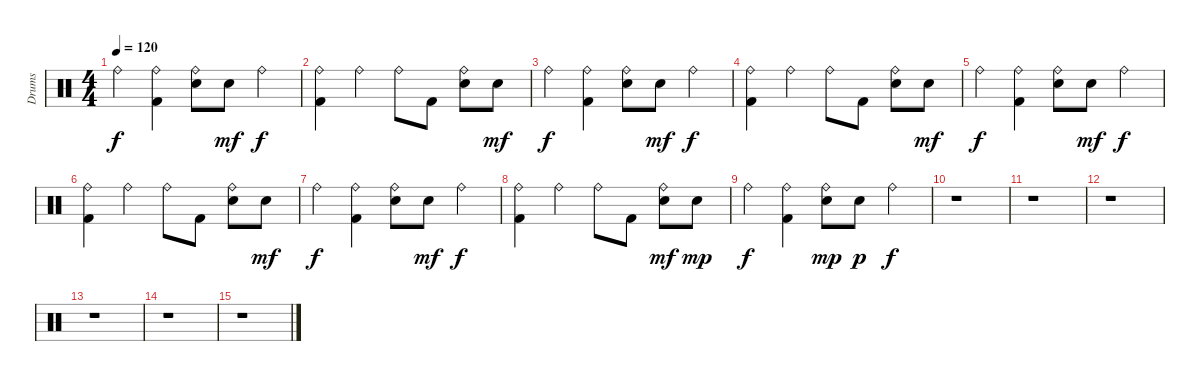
\track ("Drums" "Drums") {instrument percussion}
\staff {score}
\articulation defaults
\ts (4 4)
\tempo 120
\clef neutral
\ks c "Ride (bell)".4{dy f}
("Ride (bell)" "Kick (hit) 2").4 ("Ride (bell)" "Electric Snare (hit)").8 "Electric Snare (hit)".8{dy mf} "Ride (bell)".4{dy f} |
("Ride (bell)" "Kick (hit) 2").4 "Ride (bell)".4 "Ride (bell)".8 "Kick (hit) 2".8 ("Ride (bell)" "Electric Snare (hit)").8 "Electric Snare (hit)".8{dy mf} |
"Ride (bell)".4{dy f} ("Ride (bell)" "Kick (hit) 2").4 ("Ride (bell)" "Electric Snare (hit)").8 "Electric Snare (hit)".8{dy mf} "Ride (bell)".4{dy f} |
("Ride (bell)" "Kick (hit) 2").4 "Ride (bell)".4 "Ride (bell)".8 "Kick (hit) 2".8 ("Ride (bell)" "Electric Snare (hit)").8 "Electric Snare (hit)".8{dy mf} |
"Ride (bell)".4{dy f} ("Ride (bell)" "Kick (hit) 2").4 ("Ride (bell)" "Electric Snare (hit)").8 "Electric Snare (hit)".8{dy mf} "Ride (bell)".4{dy f} |
("Ride (bell)" "Kick (hit) 2").4 "Ride (bell)".4 "Ride (bell)".8 "Kick (hit) 2".8 ("Ride (bell)" "Electric Snare (hit)").8 "Electric Snare (hit)".8{dy mf} |
"Ride (bell)".4{dy f} ("Ride (bell)" "Kick (hit) 2").4 ("Ride (bell)" "Electric Snare (hit)").8 "Electric Snare (hit)".8{dy mf} "Ride (bell)".4{dy f} |
("Ride (bell)" "Kick (hit) 2").4 "Ride (bell)".4 "Ride (bell)".8 "Kick (hit) 2".8 ("Ride (bell)" "Electric Snare (hit)").8{dy mf} "Electric Snare (hit)".8{dy mp} |
"Ride (bell)".4{dy f} ("Ride (bell)" "Kick (hit) 2").4 ("Ride (bell)" "Electric Snare (hit)").8{dy mp} "Electric Snare (hit)".8{dy p} "Ride (bell)".4{dy f} |
r.1 |
r.1 |
r.1 |
r.1 |
r.1 |
r.1
